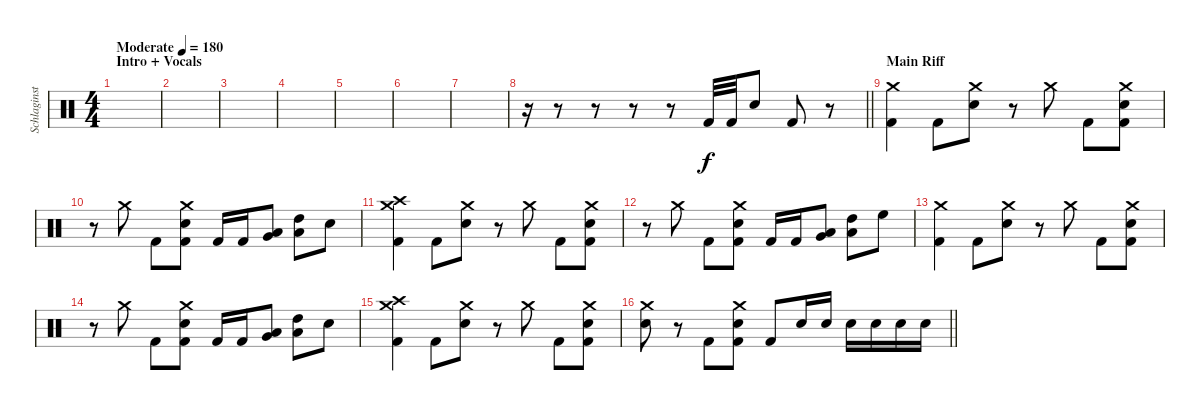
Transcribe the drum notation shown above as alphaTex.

\track ("Schlaginstrumente - Auswahl" "Schlaginst") {instrument percussion}
\staff {score}
\articulation defaults
\ts (4 4)
\section ("" "Intro + Vocals")
\tempo (180 "Moderate")
\clef neutral
\ks c
|
|
|
|
|
|
|
\barLineRight lightlight
r.16 r.8 r.8 r.8 r.8 "Kick (hit) 2".32 "Kick (hit) 2".32 "Electric Snare (hit)".8 "Kick (hit) 2".8 r.8 |
\section ("" "Main Riff")
("Crash medium (hit)" "Kick (hit) 2").4 "Kick (hit) 2".8 ("Crash medium (hit)" "Electric Snare (hit)").8 r.8 "Crash medium (hit)".8 "Kick (hit) 2".8 ("Crash medium (hit)" "Electric Snare (hit)" "Kick (hit) 2").8 |
r.8 "Crash medium (hit)".8 "Kick (hit) 2".8 ("Crash medium (hit)" "Electric Snare (hit)" "Kick (hit) 2").8 "Kick (hit) 2".16 "Kick (hit) 2".16 ("Very Low Tom (hit)" "Low Tom (hit)").8 ("High Tom (hit)" "Low Tom (hit)").8 "Electric Snare (hit)".8 |
("Crash medium (hit)" "Crash high (hit)" "Kick (hit) 2").4 "Kick (hit) 2".8 ("Crash medium (hit)" "Electric Snare (hit)").8 r.8 "Crash medium (hit)".8 "Kick (hit) 2".8 ("Crash medium (hit)" "Electric Snare (hit)" "Kick (hit) 2").8 |
r.8 "Crash medium (hit)".8 "Kick (hit) 2".8 ("Crash medium (hit)" "Electric Snare (hit)" "Kick (hit) 2").8 "Kick (hit) 2".16 "Kick (hit) 2".16 ("Very Low Tom (hit)" "Low Tom (hit)").8 ("High Tom (hit)" "Low Tom (hit)").8 "High Floor Tom (hit)".8 |
("Crash medium (hit)" "Kick (hit) 2").4 "Kick (hit) 2".8 ("Crash medium (hit)" "Electric Snare (hit)").8 r.8 "Crash medium (hit)".8 "Kick (hit) 2".8 ("Crash medium (hit)" "Electric Snare (hit)" "Kick (hit) 2").8 |
r.8 "Crash medium (hit)".8 "Kick (hit) 2".8 ("Crash medium (hit)" "Electric Snare (hit)" "Kick (hit) 2").8 "Kick (hit) 2".16 "Kick (hit) 2".16 ("Very Low Tom (hit)" "Low Tom (hit)").8 ("High Tom (hit)" "Low Tom (hit)").8 "Electric Snare (hit)".8 |
("Crash medium (hit)" "Crash high (hit)" "Kick (hit) 2").4 "Kick (hit) 2".8 ("Crash medium (hit)" "Electric Snare (hit)").8 r.8 "Crash medium (hit)".8 "Kick (hit) 2".8 ("Crash medium (hit)" "Electric Snare (hit)" "Kick (hit) 2").8 |
\barLineRight lightlight
("Crash medium (hit)" "Electric Snare (hit)").8 r.8 "Kick (hit) 2".8 ("Crash medium (hit)" "Electric Snare (hit)" "Kick (hit) 2").8 "Kick (hit) 2".8 "Electric Snare (hit)".16 "Electric Snare (hit)".16 "Electric Snare (hit)".16 "Electric Snare (hit)".16 "Electric Snare (hit)".16 "Electric Snare (hit)".16
